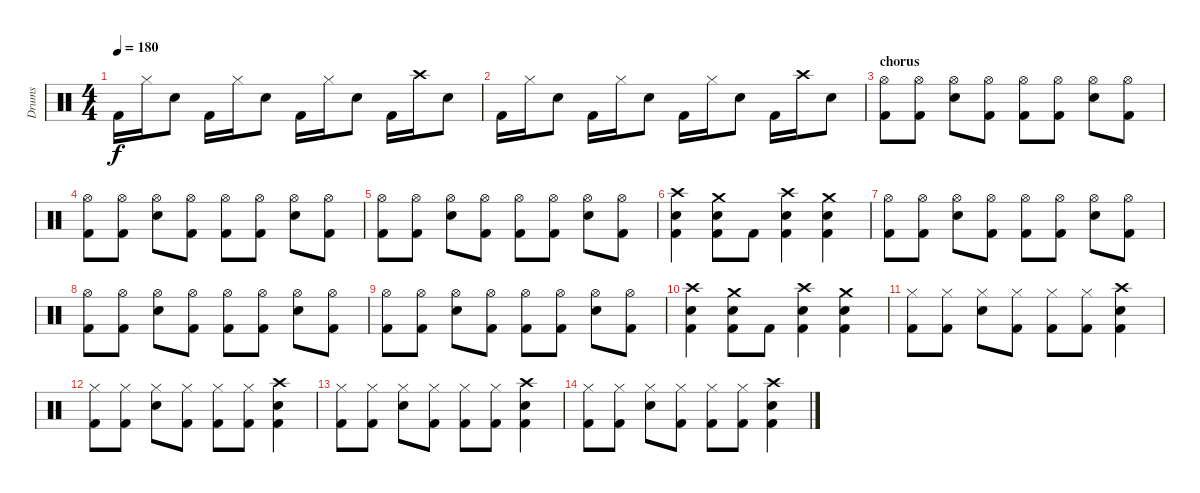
\track ("Drums" "Drums") {instrument percussion}
\staff {score}
\articulation defaults
\ts (4 4)
\tempo 180
\clef neutral
\ks c "Kick (hit) 2".16{dy f} "Hi-Hat (closed)".16 "Electric Snare (hit)".8 "Kick (hit) 2".16 "Hi-Hat (closed)".16 "Electric Snare (hit)".8 "Kick (hit) 2".16 "Hi-Hat (closed)".16 "Electric Snare (hit)".8 "Kick (hit) 2".16 "Crash high (hit)".16 "Electric Snare (hit)".8
|
"Kick (hit) 2".16 "Hi-Hat (closed)".16 "Electric Snare (hit)".8 "Kick (hit) 2".16 "Hi-Hat (closed)".16 "Electric Snare (hit)".8 "Kick (hit) 2".16 "Hi-Hat (closed)".16 "Electric Snare (hit)".8 "Kick (hit) 2".16 "Crash high (hit)".16 "Electric Snare (hit)".8 |
\section ("" "chorus")
("Hi-Hat (open)" "Kick (hit) 2").8 ("Hi-Hat (open)" "Kick (hit) 2").8 ("Hi-Hat (open)" "Electric Snare (hit)").8 ("Hi-Hat (open)" "Kick (hit) 2").8 ("Hi-Hat (open)" "Kick (hit) 2").8 ("Hi-Hat (open)" "Kick (hit) 2").8 ("Hi-Hat (open)" "Electric Snare (hit)").8 ("Hi-Hat (open)" "Kick (hit) 2").8 |
("Hi-Hat (open)" "Kick (hit) 2").8 ("Hi-Hat (open)" "Kick (hit) 2").8 ("Hi-Hat (open)" "Electric Snare (hit)").8 ("Hi-Hat (open)" "Kick (hit) 2").8 ("Hi-Hat (open)" "Kick (hit) 2").8 ("Hi-Hat (open)" "Kick (hit) 2").8 ("Hi-Hat (open)" "Electric Snare (hit)").8 ("Hi-Hat (open)" "Kick (hit) 2").8 |
("Hi-Hat (open)" "Kick (hit) 2").8 ("Hi-Hat (open)" "Kick (hit) 2").8 ("Hi-Hat (open)" "Electric Snare (hit)").8 ("Hi-Hat (open)" "Kick (hit) 2").8 ("Hi-Hat (open)" "Kick (hit) 2").8 ("Hi-Hat (open)" "Kick (hit) 2").8 ("Hi-Hat (open)" "Electric Snare (hit)").8 ("Hi-Hat (open)" "Kick (hit) 2").8 |
("Crash high (hit)" "Electric Snare (hit)" "Kick (hit) 2").4 ("Crash medium (hit)" "Electric Snare (hit)" "Kick (hit) 2").8 "Kick (hit) 2".8 ("Crash high (hit)" "Electric Snare (hit)" "Kick (hit) 2").4 ("Crash medium (hit)" "Electric Snare (hit)" "Kick (hit) 2").4 |
("Hi-Hat (open)" "Kick (hit) 2").8 ("Hi-Hat (open)" "Kick (hit) 2").8 ("Hi-Hat (open)" "Electric Snare (hit)").8 ("Hi-Hat (open)" "Kick (hit) 2").8 ("Hi-Hat (open)" "Kick (hit) 2").8 ("Hi-Hat (open)" "Kick (hit) 2").8 ("Hi-Hat (open)" "Electric Snare (hit)").8 ("Hi-Hat (open)" "Kick (hit) 2").8 |
("Hi-Hat (open)" "Kick (hit) 2").8 ("Hi-Hat (open)" "Kick (hit) 2").8 ("Hi-Hat (open)" "Electric Snare (hit)").8 ("Hi-Hat (open)" "Kick (hit) 2").8 ("Hi-Hat (open)" "Kick (hit) 2").8 ("Hi-Hat (open)" "Kick (hit) 2").8 ("Hi-Hat (open)" "Electric Snare (hit)").8 ("Hi-Hat (open)" "Kick (hit) 2").8 |
("Hi-Hat (open)" "Kick (hit) 2").8 ("Hi-Hat (open)" "Kick (hit) 2").8 ("Hi-Hat (open)" "Electric Snare (hit)").8 ("Hi-Hat (open)" "Kick (hit) 2").8 ("Hi-Hat (open)" "Kick (hit) 2").8 ("Hi-Hat (open)" "Kick (hit) 2").8 ("Hi-Hat (open)" "Electric Snare (hit)").8 ("Hi-Hat (open)" "Kick (hit) 2").8 |
("Crash high (hit)" "Electric Snare (hit)" "Kick (hit) 2").4 ("Crash medium (hit)" "Electric Snare (hit)" "Kick (hit) 2").8 "Kick (hit) 2".8 ("Crash high (hit)" "Electric Snare (hit)" "Kick (hit) 2").4 ("Crash medium (hit)" "Electric Snare (hit)" "Kick (hit) 2").4 |
("Hi-Hat (closed)" "Kick (hit) 2").8 ("Hi-Hat (closed)" "Kick (hit) 2").8 ("Hi-Hat (closed)" "Electric Snare (hit)").8 ("Hi-Hat (closed)" "Kick (hit) 2").8 ("Hi-Hat (closed)" "Kick (hit) 2").8 ("Hi-Hat (closed)" "Kick (hit) 2").8 ("Crash high (hit)" "Electric Snare (hit)" "Kick (hit) 2").4 |
("Hi-Hat (closed)" "Kick (hit) 2").8 ("Hi-Hat (closed)" "Kick (hit) 2").8 ("Hi-Hat (closed)" "Electric Snare (hit)").8 ("Hi-Hat (closed)" "Kick (hit) 2").8 ("Hi-Hat (closed)" "Kick (hit) 2").8 ("Hi-Hat (closed)" "Kick (hit) 2").8 ("Crash high (hit)" "Electric Snare (hit)" "Kick (hit) 2").4 |
("Hi-Hat (closed)" "Kick (hit) 2").8 ("Hi-Hat (closed)" "Kick (hit) 2").8 ("Hi-Hat (closed)" "Electric Snare (hit)").8 ("Hi-Hat (closed)" "Kick (hit) 2").8 ("Hi-Hat (closed)" "Kick (hit) 2").8 ("Hi-Hat (closed)" "Kick (hit) 2").8 ("Crash high (hit)" "Electric Snare (hit)" "Kick (hit) 2").4 |
("Hi-Hat (closed)" "Kick (hit) 2").8 ("Hi-Hat (closed)" "Kick (hit) 2").8 ("Hi-Hat (closed)" "Electric Snare (hit)").8 ("Hi-Hat (closed)" "Kick (hit) 2").8 ("Hi-Hat (closed)" "Kick (hit) 2").8 ("Hi-Hat (closed)" "Kick (hit) 2").8 ("Crash high (hit)" "Electric Snare (hit)" "Kick (hit) 2").4
